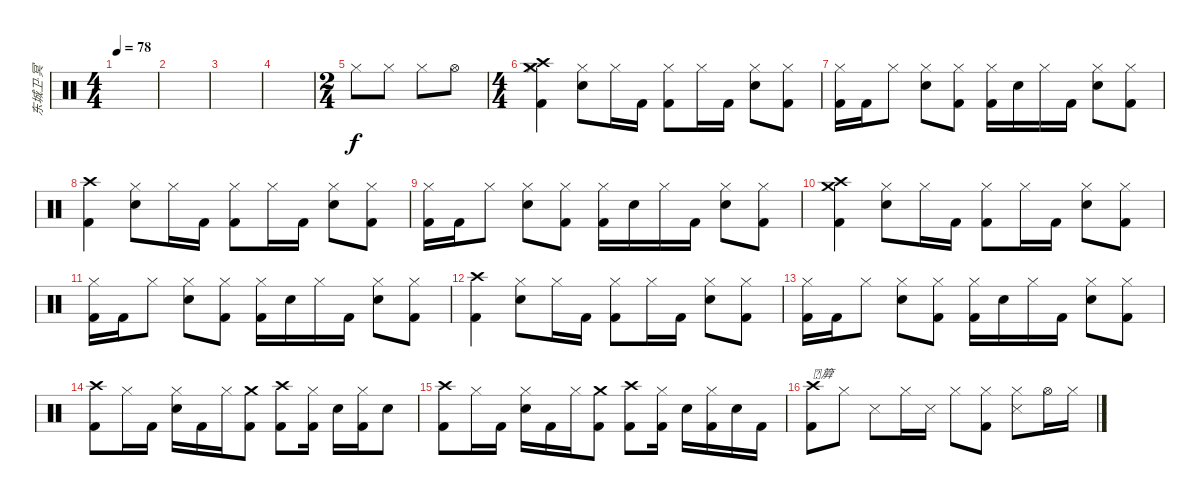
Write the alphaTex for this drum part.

\track ("东城卫·冥" "东城卫·冥") {instrument percussion}
\staff {score}
\articulation defaults
\ts (4 4)
\tempo 78
\clef neutral
\ks c
|
|
|
|
\ts (2 4)
"Hi-Hat (closed)".8 "Hi-Hat (closed)".8 "Hi-Hat (closed)".8 "Hi-Hat (open)".8 |
\ts (4 4)
("Crash medium (hit)" "Crash high (hit)" "Hi-Hat (closed)" "Kick (hit) 2").4 ("Hi-Hat (closed)" "Electric Snare (hit)").8 "Hi-Hat (closed)".16 "Kick (hit) 2".16 ("Hi-Hat (closed)" "Kick (hit) 2").8 "Hi-Hat (closed)".16 "Kick (hit) 2".16 ("Hi-Hat (closed)" "Electric Snare (hit)").8 ("Hi-Hat (closed)" "Kick (hit) 2").8 |
("Hi-Hat (closed)" "Kick (hit) 2").16 "Kick (hit) 2".16 "Hi-Hat (closed)".8 ("Hi-Hat (closed)" "Electric Snare (hit)").8 ("Hi-Hat (closed)" "Kick (hit) 2").8 ("Hi-Hat (closed)" "Kick (hit) 2").16 "Electric Snare (hit)".16 "Hi-Hat (closed)".16 "Kick (hit) 2".16 ("Hi-Hat (closed)" "Electric Snare (hit)").8 ("Hi-Hat (closed)" "Kick (hit) 2").8 |
("Crash high (hit)" "Kick (hit) 2").4 ("Hi-Hat (closed)" "Electric Snare (hit)").8 "Hi-Hat (closed)".16 "Kick (hit) 2".16 ("Hi-Hat (closed)" "Kick (hit) 2").8 "Hi-Hat (closed)".16 "Kick (hit) 2".16 ("Hi-Hat (closed)" "Electric Snare (hit)").8 ("Hi-Hat (closed)" "Kick (hit) 2").8 |
("Hi-Hat (closed)" "Kick (hit) 2").16 "Kick (hit) 2".16 "Hi-Hat (closed)".8 ("Hi-Hat (closed)" "Electric Snare (hit)").8 ("Hi-Hat (closed)" "Kick (hit) 2").8 ("Hi-Hat (closed)" "Kick (hit) 2").16 "Electric Snare (hit)".16 "Hi-Hat (closed)".16 "Kick (hit) 2".16 ("Hi-Hat (closed)" "Electric Snare (hit)").8 ("Hi-Hat (closed)" "Kick (hit) 2").8 |
("Crash medium (hit)" "Crash high (hit)" "Kick (hit) 2").4 ("Hi-Hat (closed)" "Electric Snare (hit)").8 "Hi-Hat (closed)".16 "Kick (hit) 2".16 ("Hi-Hat (closed)" "Kick (hit) 2").8 "Hi-Hat (closed)".16 "Kick (hit) 2".16 ("Hi-Hat (closed)" "Electric Snare (hit)").8 ("Hi-Hat (closed)" "Kick (hit) 2").8 |
("Hi-Hat (closed)" "Kick (hit) 2").16 "Kick (hit) 2".16 "Hi-Hat (closed)".8 ("Hi-Hat (closed)" "Electric Snare (hit)").8 ("Hi-Hat (closed)" "Kick (hit) 2").8 ("Hi-Hat (closed)" "Kick (hit) 2").16 "Electric Snare (hit)".16 "Hi-Hat (closed)".16 "Kick (hit) 2".16 ("Hi-Hat (closed)" "Electric Snare (hit)").8 ("Hi-Hat (closed)" "Kick (hit) 2").8 |
("Crash high (hit)" "Kick (hit) 2").4 ("Hi-Hat (closed)" "Electric Snare (hit)").8 "Hi-Hat (closed)".16 "Kick (hit) 2".16 ("Hi-Hat (closed)" "Kick (hit) 2").8 "Hi-Hat (closed)".16 "Kick (hit) 2".16 ("Hi-Hat (closed)" "Electric Snare (hit)").8 ("Hi-Hat (closed)" "Kick (hit) 2").8 |
("Hi-Hat (closed)" "Kick (hit) 2").16 "Kick (hit) 2".16 "Hi-Hat (closed)".8 ("Hi-Hat (closed)" "Electric Snare (hit)").8 ("Hi-Hat (closed)" "Kick (hit) 2").8 ("Hi-Hat (closed)" "Kick (hit) 2").16 "Electric Snare (hit)".16 "Hi-Hat (closed)".16 "Kick (hit) 2".16 ("Hi-Hat (closed)" "Electric Snare (hit)").8 ("Hi-Hat (closed)" "Kick (hit) 2").8 |
("Crash high (hit)" "Kick (hit) 2").8 "Hi-Hat (closed)".16 "Kick (hit) 2".16 ("Hi-Hat (closed)" "Electric Snare (hit)").16 "Kick (hit) 2".16 "Hi-Hat (closed)".16 ("Crash medium (hit)" "Kick (hit) 2").8 ("Crash high (hit)" "Kick (hit) 2").8 ("Hi-Hat (closed)" "Kick (hit) 2").16 "Electric Snare (hit)".16 ("Hi-Hat (closed)" "Kick (hit) 2").16 "Electric Snare (hit)".8 |
("Crash high (hit)" "Kick (hit) 2").8 "Hi-Hat (closed)".16 "Kick (hit) 2".16 ("Hi-Hat (closed)" "Electric Snare (hit)").16 "Kick (hit) 2".16 "Hi-Hat (closed)".16 ("Crash medium (hit)" "Kick (hit) 2").8 ("Crash high (hit)" "Kick (hit) 2").8 ("Hi-Hat (closed)" "Kick (hit) 2").16 "Electric Snare (hit)".16 ("Hi-Hat (closed)" "Kick (hit) 2").16 "Electric Snare (hit)".16 "Kick (hit) 2".16 |
("Crash high (hit)" "Kick (hit) 2").8{txt "簈"} "Hi-Hat (closed)".8 "Metronome (hit)".8 "Hi-Hat (closed)".16 "Metronome (hit)".16 "Hi-Hat (closed)".8 ("Hi-Hat (closed)" "Kick (hit) 2").8 ("Hi-Hat (closed)" "Metronome (hit)").8 "Hi-Hat (open)".16 "Hi-Hat (closed)".16
